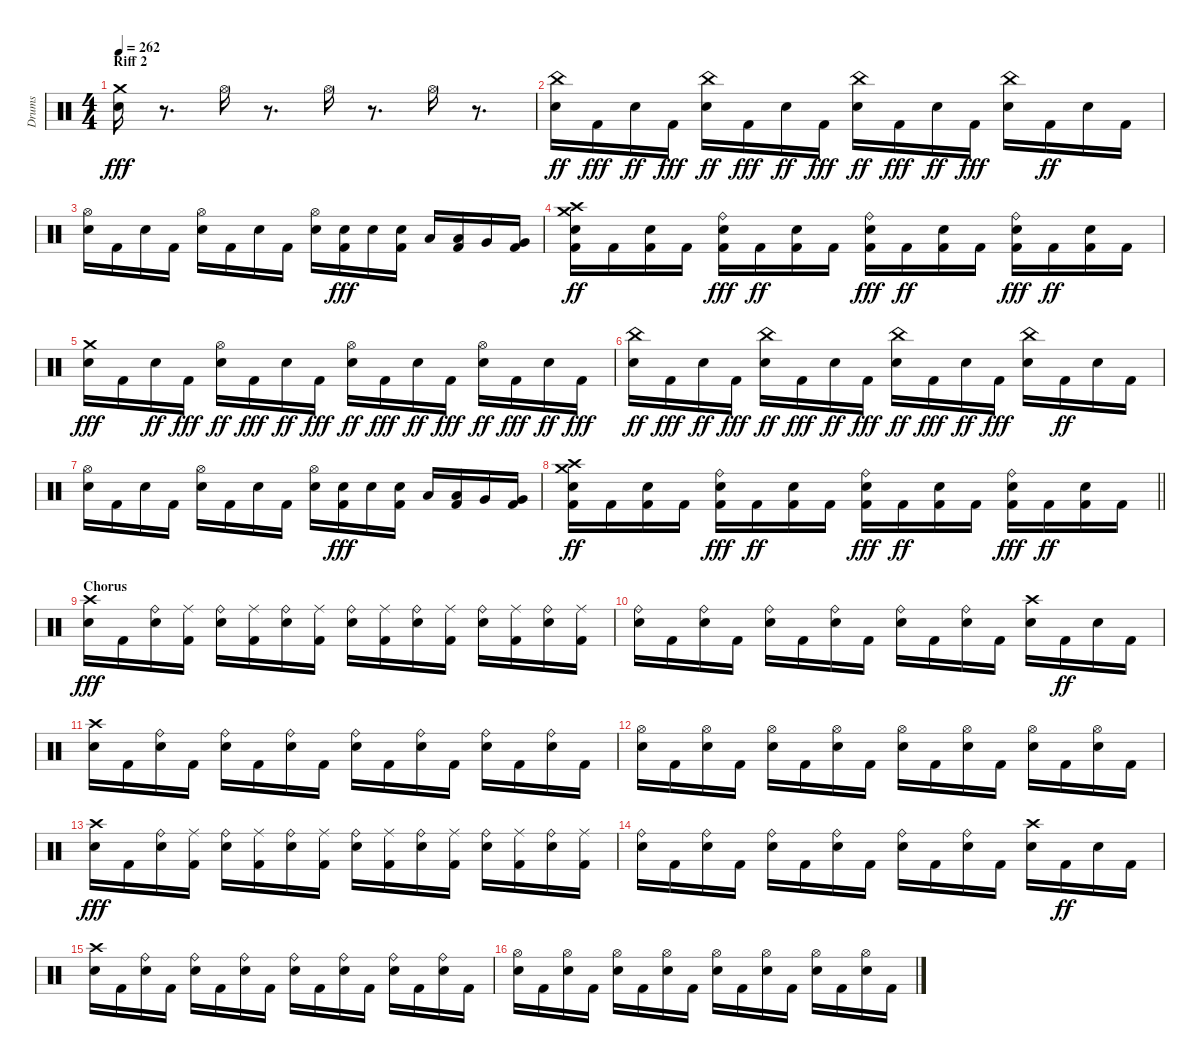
\track ("Drums" "Drums") {instrument percussion}
\staff {score}
\articulation defaults
\ts (4 4)
\section ("" "Riff 2")
\tempo 262
\clef neutral
\ks c
("Crash medium (hit)" "Snare (hit) 2").16{dy fff} r.8{d} "Hi-Hat (open)".16 r.8{d} "Hi-Hat (open)".16 r.8{d} "Hi-Hat (open)".16 r.8{d} |
("China (hit)" "Snare (hit) 2").16{dy ff} "Kick (hit) 2".16{dy fff} "Snare (hit) 2".16{dy ff} "Kick (hit) 2".16{dy fff} ("China (hit)" "Snare (hit) 2").16{dy ff} "Kick (hit) 2".16{dy fff} "Snare (hit) 2".16{dy ff} "Kick (hit) 2".16{dy fff} ("China (hit)" "Snare (hit) 2").16{dy ff} "Kick (hit) 2".16{dy fff} "Snare (hit) 2".16{dy ff} "Kick (hit) 2".16{dy fff} ("China (hit)" "Snare (hit) 2").16 "Kick (hit) 2".16{dy ff} "Snare (hit) 2".16 "Kick (hit) 2".16 |
("Hi-Hat (open)" "Snare (hit) 2").16 "Kick (hit) 2".16 "Snare (hit) 2".16 "Kick (hit) 2".16 ("Hi-Hat (open)" "Snare (hit) 2").16 "Kick (hit) 2".16 "Snare (hit) 2".16 "Kick (hit) 2".16 ("Hi-Hat (open)" "Snare (hit) 2").16 ("Kick (hit) 2" "Snare (hit) 2").16{dy fff} "Snare (hit) 2".16 ("Kick (hit) 2" "Snare (hit) 2").16 "Low Tom (hit)".16 ("Kick (hit) 2" "Low Tom (hit)").16 "Very Low Tom (hit)".16 ("Kick (hit) 2" "Very Low Tom (hit)").16 |
("Crash high (hit)" "Crash medium (hit)" "Kick (hit) 2" "Snare (hit) 2").16{dy ff} "Kick (hit) 2".16 ("Kick (hit) 2" "Snare (hit) 2").16 "Kick (hit) 2".16 ("Kick (hit) 2" "Snare (hit) 2" "Ride (bell)").16{dy fff} "Kick (hit) 2".16{dy ff} ("Kick (hit) 2" "Snare (hit) 2").16 "Kick (hit) 2".16 ("Kick (hit) 2" "Snare (hit) 2" "Ride (bell)").16{dy fff} "Kick (hit) 2".16{dy ff} ("Kick (hit) 2" "Snare (hit) 2").16 "Kick (hit) 2".16 ("Kick (hit) 2" "Snare (hit) 2" "Ride (bell)").16{dy fff} "Kick (hit) 2".16{dy ff} ("Kick (hit) 2" "Snare (hit) 2").16 "Kick (hit) 2".16 |
("Crash medium (hit)" "Snare (hit) 2").16{dy fff} "Kick (hit) 2".16 "Snare (hit) 2".16{dy ff} "Kick (hit) 2".16{dy fff} ("Hi-Hat (open)" "Snare (hit) 2").16{dy ff} "Kick (hit) 2".16{dy fff} "Snare (hit) 2".16{dy ff} "Kick (hit) 2".16{dy fff} ("Hi-Hat (open)" "Snare (hit) 2").16{dy ff} "Kick (hit) 2".16{dy fff} "Snare (hit) 2".16{dy ff} "Kick (hit) 2".16{dy fff} ("Hi-Hat (open)" "Snare (hit) 2").16{dy ff} "Kick (hit) 2".16{dy fff} "Snare (hit) 2".16{dy ff} "Kick (hit) 2".16{dy fff} |
("China (hit)" "Snare (hit) 2").16{dy ff} "Kick (hit) 2".16{dy fff} "Snare (hit) 2".16{dy ff} "Kick (hit) 2".16{dy fff} ("China (hit)" "Snare (hit) 2").16{dy ff} "Kick (hit) 2".16{dy fff} "Snare (hit) 2".16{dy ff} "Kick (hit) 2".16{dy fff} ("China (hit)" "Snare (hit) 2").16{dy ff} "Kick (hit) 2".16{dy fff} "Snare (hit) 2".16{dy ff} "Kick (hit) 2".16{dy fff} ("China (hit)" "Snare (hit) 2").16 "Kick (hit) 2".16{dy ff} "Snare (hit) 2".16 "Kick (hit) 2".16 |
("Hi-Hat (open)" "Snare (hit) 2").16 "Kick (hit) 2".16 "Snare (hit) 2".16 "Kick (hit) 2".16 ("Hi-Hat (open)" "Snare (hit) 2").16 "Kick (hit) 2".16 "Snare (hit) 2".16 "Kick (hit) 2".16 ("Hi-Hat (open)" "Snare (hit) 2").16 ("Kick (hit) 2" "Snare (hit) 2").16{dy fff} "Snare (hit) 2".16 ("Kick (hit) 2" "Snare (hit) 2").16 "Low Tom (hit)".16 ("Kick (hit) 2" "Low Tom (hit)").16 "Very Low Tom (hit)".16 ("Kick (hit) 2" "Very Low Tom (hit)").16 |
\barLineRight lightlight
("Crash high (hit)" "Crash medium (hit)" "Kick (hit) 2" "Snare (hit) 2").16{dy ff} "Kick (hit) 2".16 ("Kick (hit) 2" "Snare (hit) 2").16 "Kick (hit) 2".16 ("Kick (hit) 2" "Snare (hit) 2" "Ride (bell)").16{dy fff} "Kick (hit) 2".16{dy ff} ("Kick (hit) 2" "Snare (hit) 2").16 "Kick (hit) 2".16 ("Kick (hit) 2" "Snare (hit) 2" "Ride (bell)").16{dy fff} "Kick (hit) 2".16{dy ff} ("Kick (hit) 2" "Snare (hit) 2").16 "Kick (hit) 2".16 ("Kick (hit) 2" "Snare (hit) 2" "Ride (bell)").16{dy fff} "Kick (hit) 2".16{dy ff} ("Kick (hit) 2" "Snare (hit) 2").16 "Kick (hit) 2".16 |
\section ("" "Chorus")
("Crash high (hit)" "Snare (hit) 2").16{dy fff} "Kick (hit) 2".16 ("Snare (hit) 2" "Ride (bell)").16 ("Kick (hit) 2" "Ride (middle)").16 ("Snare (hit) 2" "Ride (bell)").16 ("Kick (hit) 2" "Ride (middle)").16 ("Snare (hit) 2" "Ride (bell)").16 ("Kick (hit) 2" "Ride (middle)").16 ("Snare (hit) 2" "Ride (bell)").16 ("Kick (hit) 2" "Ride (middle)").16 ("Snare (hit) 2" "Ride (bell)").16 ("Kick (hit) 2" "Ride (middle)").16 ("Snare (hit) 2" "Ride (bell)").16 ("Kick (hit) 2" "Ride (middle)").16 ("Snare (hit) 2" "Ride (bell)").16 ("Kick (hit) 2" "Ride (middle)").16 |
("Snare (hit) 2" "Ride (bell)").16 "Kick (hit) 2".16 ("Snare (hit) 2" "Ride (bell)").16 "Kick (hit) 2".16 ("Snare (hit) 2" "Ride (bell)").16 "Kick (hit) 2".16 ("Snare (hit) 2" "Ride (bell)").16 "Kick (hit) 2".16 ("Snare (hit) 2" "Ride (bell)").16 "Kick (hit) 2".16 ("Snare (hit) 2" "Ride (bell)").16 "Kick (hit) 2".16 ("Crash high (hit)" "Snare (hit) 2").16 "Kick (hit) 2".16{dy ff} "Snare (hit) 2".16 "Kick (hit) 2".16 |
("Crash high (hit)" "Snare (hit) 2").16 "Kick (hit) 2".16 ("Snare (hit) 2" "Ride (bell)").16 "Kick (hit) 2".16 ("Snare (hit) 2" "Ride (bell)").16 "Kick (hit) 2".16 ("Snare (hit) 2" "Ride (bell)").16 "Kick (hit) 2".16 ("Snare (hit) 2" "Ride (bell)").16 "Kick (hit) 2".16 ("Snare (hit) 2" "Ride (bell)").16 "Kick (hit) 2".16 ("Snare (hit) 2" "Ride (bell)").16 "Kick (hit) 2".16 ("Snare (hit) 2" "Ride (bell)").16 "Kick (hit) 2".16 |
("Hi-Hat (open)" "Snare (hit) 2").16 "Kick (hit) 2".16 ("Hi-Hat (open)" "Snare (hit) 2").16 "Kick (hit) 2".16 ("Hi-Hat (open)" "Snare (hit) 2").16 "Kick (hit) 2".16 ("Hi-Hat (open)" "Snare (hit) 2").16 "Kick (hit) 2".16 ("Hi-Hat (open)" "Snare (hit) 2").16 "Kick (hit) 2".16 ("Hi-Hat (open)" "Snare (hit) 2").16 "Kick (hit) 2".16 ("Hi-Hat (open)" "Snare (hit) 2").16 "Kick (hit) 2".16 ("Hi-Hat (open)" "Snare (hit) 2").16 "Kick (hit) 2".16 |
("Crash high (hit)" "Snare (hit) 2").16{dy fff} "Kick (hit) 2".16 ("Snare (hit) 2" "Ride (bell)").16 ("Kick (hit) 2" "Ride (middle)").16 ("Snare (hit) 2" "Ride (bell)").16 ("Kick (hit) 2" "Ride (middle)").16 ("Snare (hit) 2" "Ride (bell)").16 ("Kick (hit) 2" "Ride (middle)").16 ("Snare (hit) 2" "Ride (bell)").16 ("Kick (hit) 2" "Ride (middle)").16 ("Snare (hit) 2" "Ride (bell)").16 ("Kick (hit) 2" "Ride (middle)").16 ("Snare (hit) 2" "Ride (bell)").16 ("Kick (hit) 2" "Ride (middle)").16 ("Snare (hit) 2" "Ride (bell)").16 ("Kick (hit) 2" "Ride (middle)").16 |
("Snare (hit) 2" "Ride (bell)").16 "Kick (hit) 2".16 ("Snare (hit) 2" "Ride (bell)").16 "Kick (hit) 2".16 ("Snare (hit) 2" "Ride (bell)").16 "Kick (hit) 2".16 ("Snare (hit) 2" "Ride (bell)").16 "Kick (hit) 2".16 ("Snare (hit) 2" "Ride (bell)").16 "Kick (hit) 2".16 ("Snare (hit) 2" "Ride (bell)").16 "Kick (hit) 2".16 ("Crash high (hit)" "Snare (hit) 2").16 "Kick (hit) 2".16{dy ff} "Snare (hit) 2".16 "Kick (hit) 2".16 |
("Crash high (hit)" "Snare (hit) 2").16 "Kick (hit) 2".16 ("Snare (hit) 2" "Ride (bell)").16 "Kick (hit) 2".16 ("Snare (hit) 2" "Ride (bell)").16 "Kick (hit) 2".16 ("Snare (hit) 2" "Ride (bell)").16 "Kick (hit) 2".16 ("Snare (hit) 2" "Ride (bell)").16 "Kick (hit) 2".16 ("Snare (hit) 2" "Ride (bell)").16 "Kick (hit) 2".16 ("Snare (hit) 2" "Ride (bell)").16 "Kick (hit) 2".16 ("Snare (hit) 2" "Ride (bell)").16 "Kick (hit) 2".16 |
("Hi-Hat (open)" "Snare (hit) 2").16 "Kick (hit) 2".16 ("Hi-Hat (open)" "Snare (hit) 2").16 "Kick (hit) 2".16 ("Hi-Hat (open)" "Snare (hit) 2").16 "Kick (hit) 2".16 ("Hi-Hat (open)" "Snare (hit) 2").16 "Kick (hit) 2".16 ("Hi-Hat (open)" "Snare (hit) 2").16 "Kick (hit) 2".16 ("Hi-Hat (open)" "Snare (hit) 2").16 "Kick (hit) 2".16 ("Hi-Hat (open)" "Snare (hit) 2").16 "Kick (hit) 2".16 ("Hi-Hat (open)" "Snare (hit) 2").16 "Kick (hit) 2".16
